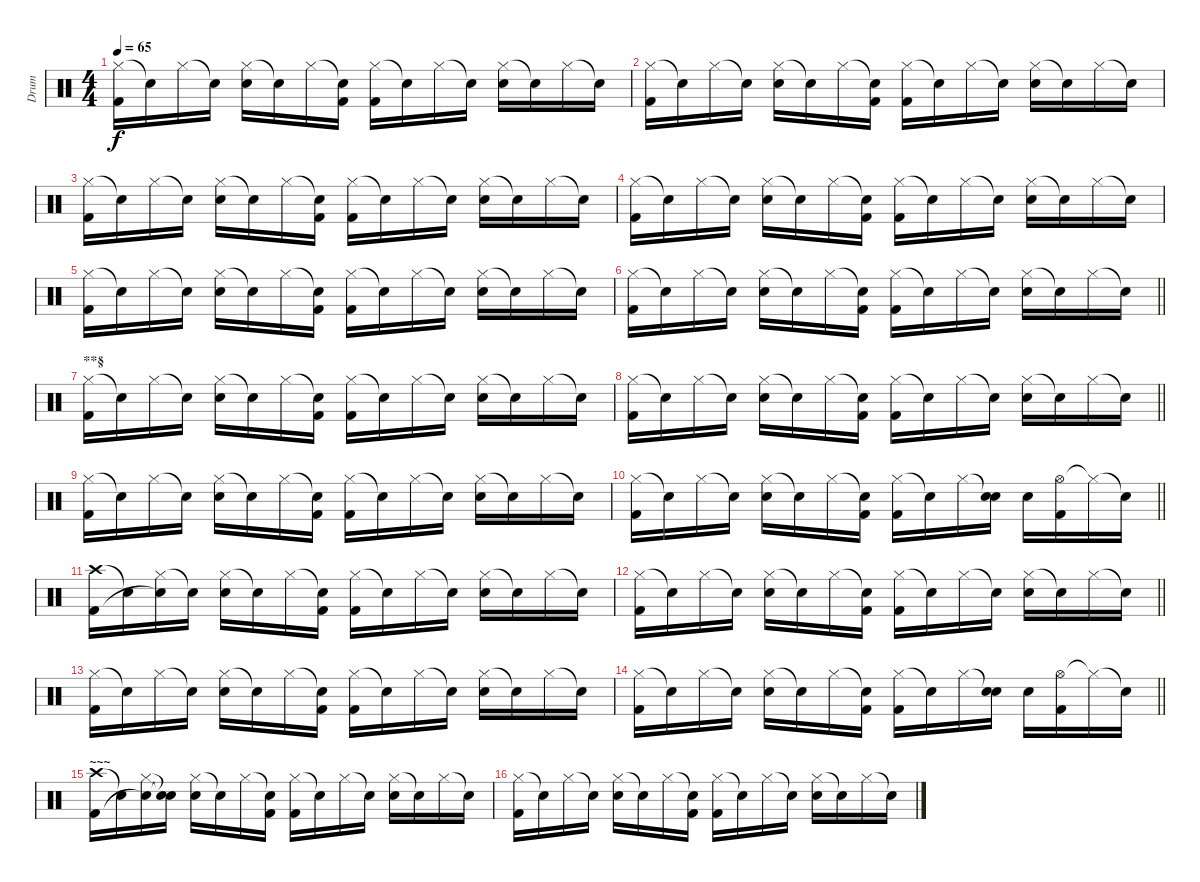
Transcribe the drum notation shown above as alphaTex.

\track ("Drum" "Drum") {instrument percussion}
\staff {score}
\articulation defaults
\ts (4 4)
\tempo 65
\clef neutral
\ks c
("Hi-Hat (closed)" "Kick (hit) 2").16{dy f} "Snare (hit)"{t}.16 "Hi-Hat (closed)".16 "Snare (hit)"{t}.16 ("Hi-Hat (closed)" "Snare (hit) 2").16 "Snare (hit)"{t}.16 "Hi-Hat (closed)".16 ("Snare (hit)"{t} "Kick (hit) 2").16 ("Hi-Hat (closed)" "Kick (hit) 2").16 "Snare (hit)"{t}.16 "Hi-Hat (closed)".16 "Snare (hit)"{t}.16 ("Hi-Hat (closed)" "Snare (hit) 2").16 "Snare (hit)"{t}.16 "Hi-Hat (closed)".16 "Snare (hit)"{t}.16 |
("Hi-Hat (closed)" "Kick (hit) 2").16 "Snare (hit)"{t}.16 "Hi-Hat (closed)".16 "Snare (hit)"{t}.16 ("Hi-Hat (closed)" "Snare (hit) 2").16 "Snare (hit)"{t}.16 "Hi-Hat (closed)".16 ("Snare (hit)"{t} "Kick (hit) 2").16 ("Hi-Hat (closed)" "Kick (hit) 2").16 "Snare (hit)"{t}.16 "Hi-Hat (closed)".16 "Snare (hit)"{t}.16 ("Hi-Hat (closed)" "Snare (hit) 2").16 "Snare (hit)"{t}.16 "Hi-Hat (closed)".16 "Snare (hit)"{t}.16 |
("Hi-Hat (closed)" "Kick (hit) 2").16 "Snare (hit)"{t}.16 "Hi-Hat (closed)".16 "Snare (hit)"{t}.16 ("Hi-Hat (closed)" "Snare (hit) 2").16 "Snare (hit)"{t}.16 "Hi-Hat (closed)".16 ("Snare (hit)"{t} "Kick (hit) 2").16 ("Hi-Hat (closed)" "Kick (hit) 2").16 "Snare (hit)"{t}.16 "Hi-Hat (closed)".16 "Snare (hit)"{t}.16 ("Hi-Hat (closed)" "Snare (hit) 2").16 "Snare (hit)"{t}.16 "Hi-Hat (closed)".16 "Snare (hit)"{t}.16 |
("Hi-Hat (closed)" "Kick (hit) 2").16 "Snare (hit)"{t}.16 "Hi-Hat (closed)".16 "Snare (hit)"{t}.16 ("Hi-Hat (closed)" "Snare (hit) 2").16 "Snare (hit)"{t}.16 "Hi-Hat (closed)".16 ("Snare (hit)"{t} "Kick (hit) 2").16 ("Hi-Hat (closed)" "Kick (hit) 2").16 "Snare (hit)"{t}.16 "Hi-Hat (closed)".16 "Snare (hit)"{t}.16 ("Hi-Hat (closed)" "Snare (hit) 2").16 "Snare (hit)"{t}.16 "Hi-Hat (closed)".16 "Snare (hit)"{t}.16 |
("Hi-Hat (closed)" "Kick (hit) 2").16 "Snare (hit)"{t}.16 "Hi-Hat (closed)".16 "Snare (hit)"{t}.16 ("Hi-Hat (closed)" "Snare (hit) 2").16 "Snare (hit)"{t}.16 "Hi-Hat (closed)".16 ("Snare (hit)"{t} "Kick (hit) 2").16 ("Hi-Hat (closed)" "Kick (hit) 2").16 "Snare (hit)"{t}.16 "Hi-Hat (closed)".16 "Snare (hit)"{t}.16 ("Hi-Hat (closed)" "Snare (hit) 2").16 "Snare (hit)"{t}.16 "Hi-Hat (closed)".16 "Snare (hit)"{t}.16 |
\barLineRight lightlight
("Hi-Hat (closed)" "Kick (hit) 2").16 "Snare (hit)"{t}.16 "Hi-Hat (closed)".16 "Snare (hit)"{t}.16 ("Hi-Hat (closed)" "Snare (hit) 2").16 "Snare (hit)"{t}.16 "Hi-Hat (closed)".16 ("Snare (hit)"{t} "Kick (hit) 2").16 ("Hi-Hat (closed)" "Kick (hit) 2").16 "Snare (hit)"{t}.16 "Hi-Hat (closed)".16 "Snare (hit)"{t}.16 ("Hi-Hat (closed)" "Snare (hit) 2").16 "Snare (hit)"{t}.16 "Hi-Hat (closed)".16 "Snare (hit)"{t}.16 |
\section ("" "**§")
("Hi-Hat (closed)" "Kick (hit) 2").16 "Snare (hit)"{t}.16 "Hi-Hat (closed)".16 "Snare (hit)"{t}.16 ("Hi-Hat (closed)" "Snare (hit) 2").16 "Snare (hit)"{t}.16 "Hi-Hat (closed)".16 ("Snare (hit)"{t} "Kick (hit) 2").16 ("Hi-Hat (closed)" "Kick (hit) 2").16 "Snare (hit)"{t}.16 "Hi-Hat (closed)".16 "Snare (hit)"{t}.16 ("Hi-Hat (closed)" "Snare (hit) 2").16 "Snare (hit)"{t}.16 "Hi-Hat (closed)".16 "Snare (hit)"{t}.16 |
\barLineRight lightlight
("Hi-Hat (closed)" "Kick (hit) 2").16 "Snare (hit)"{t}.16 "Hi-Hat (closed)".16 "Snare (hit)"{t}.16 ("Hi-Hat (closed)" "Snare (hit) 2").16 "Snare (hit)"{t}.16 "Hi-Hat (closed)".16 ("Snare (hit)"{t} "Kick (hit) 2").16 ("Hi-Hat (closed)" "Kick (hit) 2").16 "Snare (hit)"{t}.16 "Hi-Hat (closed)".16 "Snare (hit)"{t}.16 ("Hi-Hat (closed)" "Snare (hit) 2").16 "Snare (hit)"{t}.16 "Hi-Hat (closed)".16 "Snare (hit)"{t}.16 |
("Hi-Hat (closed)" "Kick (hit) 2").16 "Snare (hit)"{t}.16 "Hi-Hat (closed)".16 "Snare (hit)"{t}.16 ("Hi-Hat (closed)" "Snare (hit) 2").16 "Snare (hit)"{t}.16 "Hi-Hat (closed)".16 ("Snare (hit)"{t} "Kick (hit) 2").16 ("Hi-Hat (closed)" "Kick (hit) 2").16 "Snare (hit)"{t}.16 "Hi-Hat (closed)".16 "Snare (hit)"{t}.16 ("Hi-Hat (closed)" "Snare (hit) 2").16 "Snare (hit)"{t}.16 "Hi-Hat (closed)".16 "Snare (hit)"{t}.16 |
\barLineRight lightlight
("Hi-Hat (closed)" "Kick (hit) 2").16 "Snare (hit)"{t}.16 "Hi-Hat (closed)".16 "Snare (hit)"{t}.16 ("Hi-Hat (closed)" "Snare (hit) 2").16 "Snare (hit)"{t}.16 "Hi-Hat (closed)".16 ("Snare (hit)"{t} "Kick (hit) 2").16 ("Hi-Hat (closed)" "Kick (hit) 2").16 "Snare (hit)"{t}.16 "Hi-Hat (closed)".16 ("Snare (hit)"{t} "Snare (hit) 2").16 "Snare (hit) 2".16 ("Hi-Hat (open)" "Kick (hit) 2").16 "Hi-Hat (closed)"{t}.16 "Snare (hit)"{t}.16 |
("Crash high (hit)" "Kick (hit) 2").16 "Snare (hit)"{t}.16 ("Hi-Hat (closed)" "Snare (hit)"{t}).16 "Snare (hit)"{t}.16 ("Hi-Hat (closed)" "Snare (hit) 2").16 "Snare (hit)"{t}.16 "Hi-Hat (closed)".16 ("Snare (hit)"{t} "Kick (hit) 2").16 ("Hi-Hat (closed)" "Kick (hit) 2").16 "Snare (hit)"{t}.16 "Hi-Hat (closed)".16 "Snare (hit)"{t}.16 ("Hi-Hat (closed)" "Snare (hit) 2").16 "Snare (hit)"{t}.16 "Hi-Hat (closed)".16 "Snare (hit)"{t}.16 |
\barLineRight lightlight
("Hi-Hat (closed)" "Kick (hit) 2").16 "Snare (hit)"{t}.16 "Hi-Hat (closed)".16 "Snare (hit)"{t}.16 ("Hi-Hat (closed)" "Snare (hit) 2").16 "Snare (hit)"{t}.16 "Hi-Hat (closed)".16 ("Snare (hit)"{t} "Kick (hit) 2").16 ("Hi-Hat (closed)" "Kick (hit) 2").16 "Snare (hit)"{t}.16 "Hi-Hat (closed)".16 "Snare (hit)"{t}.16 ("Hi-Hat (closed)" "Snare (hit) 2").16 "Snare (hit)"{t}.16 "Hi-Hat (closed)".16 "Snare (hit)"{t}.16 |
("Hi-Hat (closed)" "Kick (hit) 2").16 "Snare (hit)"{t}.16 "Hi-Hat (closed)".16 "Snare (hit)"{t}.16 ("Hi-Hat (closed)" "Snare (hit) 2").16 "Snare (hit)"{t}.16 "Hi-Hat (closed)".16 ("Snare (hit)"{t} "Kick (hit) 2").16 ("Hi-Hat (closed)" "Kick (hit) 2").16 "Snare (hit)"{t}.16 "Hi-Hat (closed)".16 "Snare (hit)"{t}.16 ("Hi-Hat (closed)" "Snare (hit) 2").16 "Snare (hit)"{t}.16 "Hi-Hat (closed)".16 "Snare (hit)"{t}.16 |
\barLineRight lightlight
("Hi-Hat (closed)" "Kick (hit) 2").16 "Snare (hit)"{t}.16 "Hi-Hat (closed)".16 "Snare (hit)"{t}.16 ("Hi-Hat (closed)" "Snare (hit) 2").16 "Snare (hit)"{t}.16 "Hi-Hat (closed)".16 ("Snare (hit)"{t} "Kick (hit) 2").16 ("Hi-Hat (closed)" "Kick (hit) 2").16 "Snare (hit)"{t}.16 "Hi-Hat (closed)".16 ("Snare (hit)"{t} "Snare (hit) 2").16 "Snare (hit) 2".16 ("Hi-Hat (open)" "Kick (hit) 2").16 "Hi-Hat (closed)"{t}.16 "Snare (hit)"{t}.16 |
\section ("" "~~~")
("Crash high (hit)" "Kick (hit) 2").16 "Snare (hit)"{t}.16 ("Hi-Hat (closed)" "Snare (hit)"{t}).16 ("Snare (hit)"{t} "Snare (hit)"{t}).16 ("Hi-Hat (closed)" "Snare (hit) 2").16 "Snare (hit)"{t}.16 "Hi-Hat (closed)".16 ("Snare (hit)"{t} "Kick (hit) 2").16 ("Hi-Hat (closed)" "Kick (hit) 2").16 "Snare (hit)"{t}.16 "Hi-Hat (closed)".16 "Snare (hit)"{t}.16 ("Hi-Hat (closed)" "Snare (hit) 2").16 "Snare (hit)"{t}.16 "Hi-Hat (closed)".16 "Snare (hit)"{t}.16 |
("Hi-Hat (closed)" "Kick (hit) 2").16 "Snare (hit)"{t}.16 "Hi-Hat (closed)".16 "Snare (hit)"{t}.16 ("Hi-Hat (closed)" "Snare (hit) 2").16 "Snare (hit)"{t}.16 "Hi-Hat (closed)".16 ("Snare (hit)"{t} "Kick (hit) 2").16 ("Hi-Hat (closed)" "Kick (hit) 2").16 "Snare (hit)"{t}.16 "Hi-Hat (closed)".16 "Snare (hit)"{t}.16 ("Hi-Hat (closed)" "Snare (hit) 2").16 "Snare (hit)"{t}.16 "Hi-Hat (closed)".16 "Snare (hit)"{t}.16
